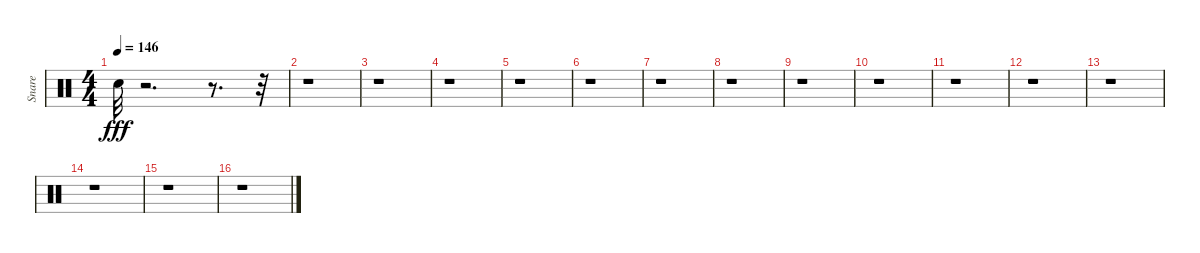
\track ("Snare" "Snare") {instrument percussion}
\staff {score}
\articulation defaults
\ts (4 4)
\tempo 146
\clef neutral
\ks c "Electric Snare (hit)".32{dy fff volume 9}
r.2{d} r.8{d} r.32 |
r.1 |
r.1 |
r.1 |
r.1 |
r.1 |
r.1 |
r.1 |
r.1 |
r.1 |
r.1 |
r.1 |
r.1 |
r.1 |
r.1 |
r.1
